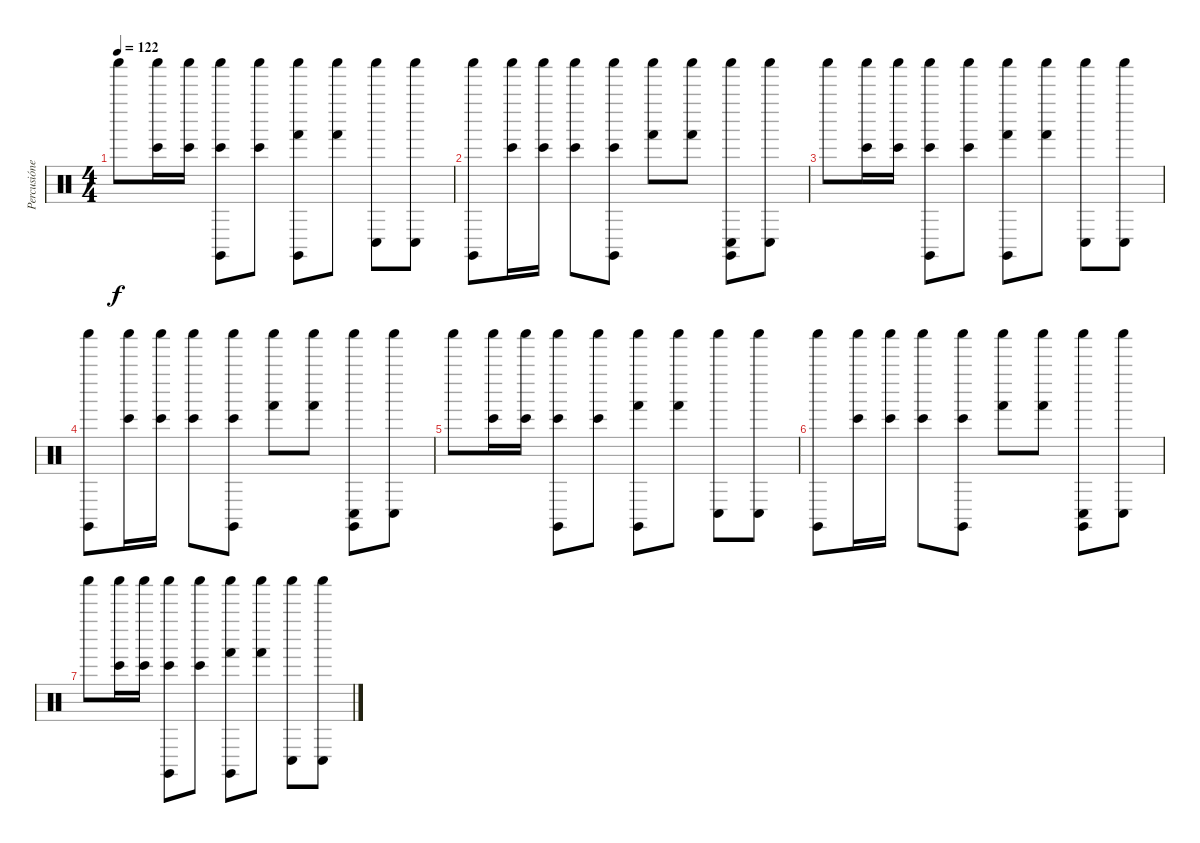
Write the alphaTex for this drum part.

\track ("Percusiónes" "Percusióne") {instrument percussion}
\staff {score}
\articulation defaults
\ts (4 4)
\tempo 122
\clef neutral
\ks c "Shaker (hit)".8{dy f}
("Bongo High (hit)" "Shaker (hit)").16 ("Bongo High (hit)" "Shaker (hit)").16 ("Bongo High (hit)" "Shaker (hit)" "Claves (hit)").8 ("Bongo High (hit)" "Shaker (hit)").8 ("Hand (hit)" "Shaker (hit)" "Claves (hit)").8 ("Hand (hit)" "Shaker (hit)").8 ("Conga low (hit)" "Shaker (hit)").8 ("Conga low (hit)" "Shaker (hit)").8 |
("Shaker (hit)" "Claves (hit)").8 ("Bongo High (hit)" "Shaker (hit)").16 ("Bongo High (hit)" "Shaker (hit)").16 ("Bongo High (hit)" "Shaker (hit)").8 ("Bongo High (hit)" "Shaker (hit)" "Claves (hit)").8 ("Hand (hit)" "Shaker (hit)").8 ("Hand (hit)" "Shaker (hit)").8 ("Conga low (hit)" "Shaker (hit)" "Claves (hit)").8 ("Conga low (hit)" "Shaker (hit)").8 |
"Shaker (hit)".8{volume 5} ("Bongo High (hit)" "Shaker (hit)").16 ("Bongo High (hit)" "Shaker (hit)").16 ("Bongo High (hit)" "Shaker (hit)" "Claves (hit)").8 ("Bongo High (hit)" "Shaker (hit)").8 ("Hand (hit)" "Shaker (hit)" "Claves (hit)").8 ("Hand (hit)" "Shaker (hit)").8 ("Conga low (hit)" "Shaker (hit)").8 ("Conga low (hit)" "Shaker (hit)").8 |
("Shaker (hit)" "Claves (hit)").8{volume 4} ("Bongo High (hit)" "Shaker (hit)").16 ("Bongo High (hit)" "Shaker (hit)").16 ("Bongo High (hit)" "Shaker (hit)").8 ("Bongo High (hit)" "Shaker (hit)" "Claves (hit)").8 ("Hand (hit)" "Shaker (hit)").8 ("Hand (hit)" "Shaker (hit)").8 ("Conga low (hit)" "Shaker (hit)" "Claves (hit)").8 ("Conga low (hit)" "Shaker (hit)").8 |
"Shaker (hit)".8{volume 3} ("Bongo High (hit)" "Shaker (hit)").16 ("Bongo High (hit)" "Shaker (hit)").16 ("Bongo High (hit)" "Shaker (hit)" "Claves (hit)").8 ("Bongo High (hit)" "Shaker (hit)").8 ("Hand (hit)" "Shaker (hit)" "Claves (hit)").8 ("Hand (hit)" "Shaker (hit)").8 ("Conga low (hit)" "Shaker (hit)").8 ("Conga low (hit)" "Shaker (hit)").8 |
("Shaker (hit)" "Claves (hit)").8{volume 2} ("Bongo High (hit)" "Shaker (hit)").16 ("Bongo High (hit)" "Shaker (hit)").16 ("Bongo High (hit)" "Shaker (hit)").8 ("Bongo High (hit)" "Shaker (hit)" "Claves (hit)").8 ("Hand (hit)" "Shaker (hit)").8 ("Hand (hit)" "Shaker (hit)").8 ("Conga low (hit)" "Shaker (hit)" "Claves (hit)").8 ("Conga low (hit)" "Shaker (hit)").8 |
"Shaker (hit)".8{volume 1} ("Bongo High (hit)" "Shaker (hit)").16 ("Bongo High (hit)" "Shaker (hit)").16 ("Bongo High (hit)" "Shaker (hit)" "Claves (hit)").8 ("Bongo High (hit)" "Shaker (hit)").8 ("Hand (hit)" "Shaker (hit)" "Claves (hit)").8 ("Hand (hit)" "Shaker (hit)").8 ("Conga low (hit)" "Shaker (hit)").8 ("Conga low (hit)" "Shaker (hit)").8
